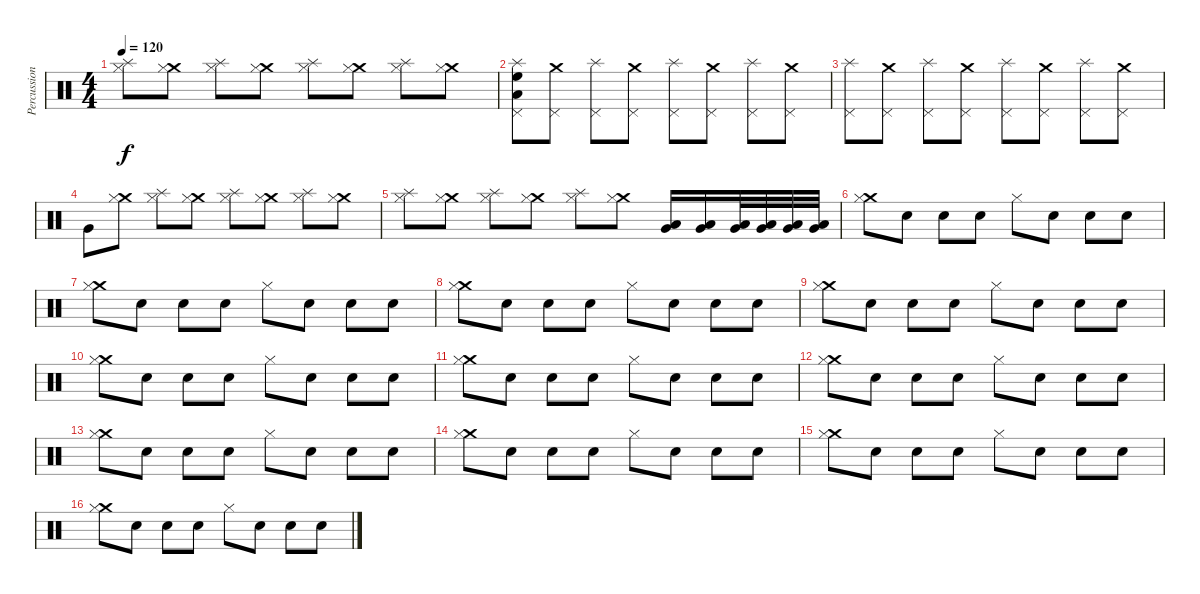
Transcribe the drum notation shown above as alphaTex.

\track ("Percussion" "Percussion") {instrument percussion}
\staff {score}
\articulation defaults
\ts (4 4)
\tempo 120
\clef neutral
\ks c
("Splash (hit)" "Hi-Hat (closed)").8{dy f} ("Crash medium (hit)" "Hi-Hat (closed)").8 ("Splash (hit)" "Hi-Hat (closed)").8 ("Crash medium (hit)" "Hi-Hat (closed)").8 ("Splash (hit)" "Hi-Hat (closed)").8 ("Crash medium (hit)" "Hi-Hat (closed)").8 ("Splash (hit)" "Hi-Hat (closed)").8 ("Crash medium (hit)" "Hi-Hat (closed)").8 |
("Splash (hit)" "Pedal Hi-Hat (hit)" "High Floor Tom (hit)" "Low Tom (hit)").8 ("Crash medium (hit)" "Pedal Hi-Hat (hit)").8 ("Splash (hit)" "Pedal Hi-Hat (hit)").8 ("Crash medium (hit)" "Pedal Hi-Hat (hit)").8 ("Splash (hit)" "Pedal Hi-Hat (hit)").8 ("Crash medium (hit)" "Pedal Hi-Hat (hit)").8 ("Splash (hit)" "Pedal Hi-Hat (hit)").8 ("Crash medium (hit)" "Pedal Hi-Hat (hit)").8 |
("Splash (hit)" "Pedal Hi-Hat (hit)").8 ("Crash medium (hit)" "Pedal Hi-Hat (hit)").8 ("Splash (hit)" "Pedal Hi-Hat (hit)").8 ("Crash medium (hit)" "Pedal Hi-Hat (hit)").8 ("Splash (hit)" "Pedal Hi-Hat (hit)").8 ("Crash medium (hit)" "Pedal Hi-Hat (hit)").8 ("Splash (hit)" "Pedal Hi-Hat (hit)").8 ("Crash medium (hit)" "Pedal Hi-Hat (hit)").8 |
"Very Low Tom (hit)".8 ("Crash medium (hit)" "Hi-Hat (closed)").8 ("Splash (hit)" "Hi-Hat (closed)").8 ("Crash medium (hit)" "Hi-Hat (closed)").8 ("Splash (hit)" "Hi-Hat (closed)").8 ("Crash medium (hit)" "Hi-Hat (closed)").8 ("Splash (hit)" "Hi-Hat (closed)").8 ("Crash medium (hit)" "Hi-Hat (closed)").8 |
("Splash (hit)" "Hi-Hat (closed)").8 ("Crash medium (hit)" "Hi-Hat (closed)").8 ("Splash (hit)" "Hi-Hat (closed)").8 ("Crash medium (hit)" "Hi-Hat (closed)").8 ("Splash (hit)" "Hi-Hat (closed)").8 ("Crash medium (hit)" "Hi-Hat (closed)").8 ("Low Tom (hit)" "Very Low Tom (hit)").16 ("Low Tom (hit)" "Very Low Tom (hit)").16 ("Low Tom (hit)" "Very Low Tom (hit)").32 ("Low Tom (hit)" "Very Low Tom (hit)").32 ("Low Tom (hit)" "Very Low Tom (hit)").32 ("Low Tom (hit)" "Very Low Tom (hit)").32 |
("Crash medium (hit)" "Hi-Hat (closed)").8 "Electric Snare (hit)".8 "Electric Snare (hit)".8 "Electric Snare (hit)".8 "Hi-Hat (closed)".8 "Electric Snare (hit)".8 "Electric Snare (hit)".8 "Electric Snare (hit)".8 |
("Crash medium (hit)" "Hi-Hat (closed)").8 "Electric Snare (hit)".8 "Electric Snare (hit)".8 "Electric Snare (hit)".8 "Hi-Hat (closed)".8 "Electric Snare (hit)".8 "Electric Snare (hit)".8 "Electric Snare (hit)".8 |
("Crash medium (hit)" "Hi-Hat (closed)").8 "Electric Snare (hit)".8 "Electric Snare (hit)".8 "Electric Snare (hit)".8 "Hi-Hat (closed)".8 "Electric Snare (hit)".8 "Electric Snare (hit)".8 "Electric Snare (hit)".8 |
("Crash medium (hit)" "Hi-Hat (closed)").8 "Electric Snare (hit)".8 "Electric Snare (hit)".8 "Electric Snare (hit)".8 "Hi-Hat (closed)".8 "Electric Snare (hit)".8 "Electric Snare (hit)".8 "Electric Snare (hit)".8 |
("Crash medium (hit)" "Hi-Hat (closed)").8 "Electric Snare (hit)".8 "Electric Snare (hit)".8 "Electric Snare (hit)".8 "Hi-Hat (closed)".8 "Electric Snare (hit)".8 "Electric Snare (hit)".8 "Electric Snare (hit)".8 |
("Crash medium (hit)" "Hi-Hat (closed)").8 "Electric Snare (hit)".8 "Electric Snare (hit)".8 "Electric Snare (hit)".8 "Hi-Hat (closed)".8 "Electric Snare (hit)".8 "Electric Snare (hit)".8 "Electric Snare (hit)".8 |
("Crash medium (hit)" "Hi-Hat (closed)").8 "Electric Snare (hit)".8 "Electric Snare (hit)".8 "Electric Snare (hit)".8 "Hi-Hat (closed)".8 "Electric Snare (hit)".8 "Electric Snare (hit)".8 "Electric Snare (hit)".8 |
("Crash medium (hit)" "Hi-Hat (closed)").8 "Electric Snare (hit)".8 "Electric Snare (hit)".8 "Electric Snare (hit)".8 "Hi-Hat (closed)".8 "Electric Snare (hit)".8 "Electric Snare (hit)".8 "Electric Snare (hit)".8 |
("Crash medium (hit)" "Hi-Hat (closed)").8 "Electric Snare (hit)".8 "Electric Snare (hit)".8 "Electric Snare (hit)".8 "Hi-Hat (closed)".8 "Electric Snare (hit)".8 "Electric Snare (hit)".8 "Electric Snare (hit)".8 |
("Crash medium (hit)" "Hi-Hat (closed)").8 "Electric Snare (hit)".8 "Electric Snare (hit)".8 "Electric Snare (hit)".8 "Hi-Hat (closed)".8 "Electric Snare (hit)".8 "Electric Snare (hit)".8 "Electric Snare (hit)".8 |
("Crash medium (hit)" "Hi-Hat (closed)").8 "Electric Snare (hit)".8 "Electric Snare (hit)".8 "Electric Snare (hit)".8 "Hi-Hat (closed)".8 "Electric Snare (hit)".8 "Electric Snare (hit)".8 "Electric Snare (hit)".8
